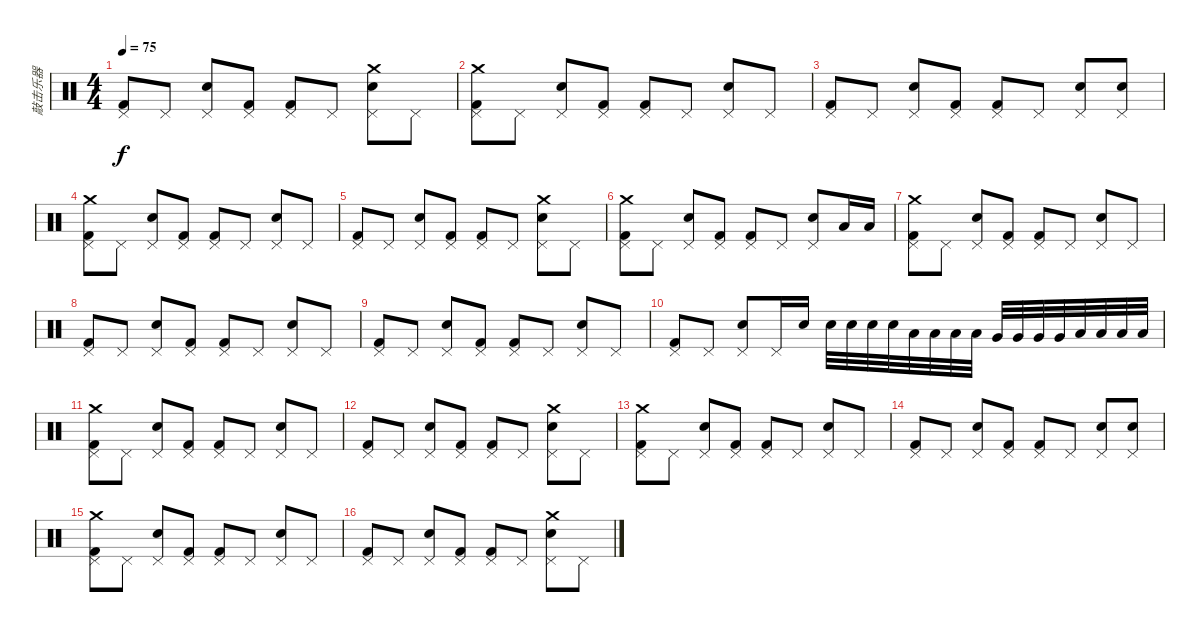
\track ("敲击乐器" "敲击乐器") {instrument percussion}
\staff {score}
\articulation defaults
\ts (4 4)
\tempo 75
\clef neutral
\ks c
("Pedal Hi-Hat (hit)" "Kick (hit) 2").8{dy f} "Pedal Hi-Hat (hit)".8 ("Pedal Hi-Hat (hit)" "Electric Snare (hit)").8 ("Pedal Hi-Hat (hit)" "Kick (hit) 2").8 ("Pedal Hi-Hat (hit)" "Kick (hit) 2").8 "Pedal Hi-Hat (hit)".8 ("Pedal Hi-Hat (hit)" "Electric Snare (hit)" "Crash medium (hit)").8 "Pedal Hi-Hat (hit)".8 |
("Pedal Hi-Hat (hit)" "Kick (hit) 2" "Crash medium (hit)").8 "Pedal Hi-Hat (hit)".8 ("Pedal Hi-Hat (hit)" "Electric Snare (hit)").8 ("Pedal Hi-Hat (hit)" "Kick (hit) 2").8 ("Pedal Hi-Hat (hit)" "Kick (hit) 2").8 "Pedal Hi-Hat (hit)".8 ("Pedal Hi-Hat (hit)" "Electric Snare (hit)").8 "Pedal Hi-Hat (hit)".8 |
("Pedal Hi-Hat (hit)" "Kick (hit) 2").8 "Pedal Hi-Hat (hit)".8 ("Pedal Hi-Hat (hit)" "Electric Snare (hit)").8 ("Pedal Hi-Hat (hit)" "Kick (hit) 2").8 ("Pedal Hi-Hat (hit)" "Kick (hit) 2").8 "Pedal Hi-Hat (hit)".8 ("Pedal Hi-Hat (hit)" "Electric Snare (hit)").8 ("Pedal Hi-Hat (hit)" "Electric Snare (hit)").8 |
("Pedal Hi-Hat (hit)" "Kick (hit) 2" "Crash medium (hit)").8 "Pedal Hi-Hat (hit)".8 ("Pedal Hi-Hat (hit)" "Electric Snare (hit)").8 ("Pedal Hi-Hat (hit)" "Kick (hit) 2").8 ("Pedal Hi-Hat (hit)" "Kick (hit) 2").8 "Pedal Hi-Hat (hit)".8 ("Pedal Hi-Hat (hit)" "Electric Snare (hit)").8 "Pedal Hi-Hat (hit)".8 |
("Pedal Hi-Hat (hit)" "Kick (hit) 2").8 "Pedal Hi-Hat (hit)".8 ("Pedal Hi-Hat (hit)" "Electric Snare (hit)").8 ("Pedal Hi-Hat (hit)" "Kick (hit) 2").8 ("Pedal Hi-Hat (hit)" "Kick (hit) 2").8 "Pedal Hi-Hat (hit)".8 ("Pedal Hi-Hat (hit)" "Electric Snare (hit)" "Crash medium (hit)").8 "Pedal Hi-Hat (hit)".8 |
("Pedal Hi-Hat (hit)" "Kick (hit) 2" "Crash medium (hit)").8 "Pedal Hi-Hat (hit)".8 ("Pedal Hi-Hat (hit)" "Electric Snare (hit)").8 ("Pedal Hi-Hat (hit)" "Kick (hit) 2").8 ("Pedal Hi-Hat (hit)" "Kick (hit) 2").8 "Pedal Hi-Hat (hit)".8 ("Pedal Hi-Hat (hit)" "Electric Snare (hit)").8 "Low Tom (hit)".16 "Low Tom (hit)".16 |
("Pedal Hi-Hat (hit)" "Kick (hit) 2" "Crash medium (hit)").8 "Pedal Hi-Hat (hit)".8 ("Pedal Hi-Hat (hit)" "Electric Snare (hit)").8 ("Pedal Hi-Hat (hit)" "Kick (hit) 2").8 ("Pedal Hi-Hat (hit)" "Kick (hit) 2").8 "Pedal Hi-Hat (hit)".8 ("Pedal Hi-Hat (hit)" "Electric Snare (hit)").8 "Pedal Hi-Hat (hit)".8 |
("Pedal Hi-Hat (hit)" "Kick (hit) 2").8 "Pedal Hi-Hat (hit)".8 ("Pedal Hi-Hat (hit)" "Electric Snare (hit)").8 ("Pedal Hi-Hat (hit)" "Kick (hit) 2").8 ("Pedal Hi-Hat (hit)" "Kick (hit) 2").8 "Pedal Hi-Hat (hit)".8 ("Pedal Hi-Hat (hit)" "Electric Snare (hit)").8 "Pedal Hi-Hat (hit)".8 |
("Pedal Hi-Hat (hit)" "Kick (hit) 2").8 "Pedal Hi-Hat (hit)".8 ("Pedal Hi-Hat (hit)" "Electric Snare (hit)").8 ("Pedal Hi-Hat (hit)" "Kick (hit) 2").8 ("Pedal Hi-Hat (hit)" "Kick (hit) 2").8 "Pedal Hi-Hat (hit)".8 ("Pedal Hi-Hat (hit)" "Electric Snare (hit)").8 "Pedal Hi-Hat (hit)".8 |
("Pedal Hi-Hat (hit)" "Kick (hit) 2").8 "Pedal Hi-Hat (hit)".8 ("Pedal Hi-Hat (hit)" "Electric Snare (hit)").8 "Pedal Hi-Hat (hit)".16 "Electric Snare (hit)".16 "Electric Snare (hit)".32 "Electric Snare (hit)".32 "Electric Snare (hit)".32 "Electric Snare (hit)".32 "Low Floor Tom (hit)".32 "Low Floor Tom (hit)".32 "Low Floor Tom (hit)".32 "Low Floor Tom (hit)".32 "Very Low Tom (hit)".32 "Very Low Tom (hit)".32 "Very Low Tom (hit)".32 "Very Low Tom (hit)".32 "Low Tom (hit)".32 "Low Tom (hit)".32 "Low Tom (hit)".32 "Low Tom (hit)".32 |
("Pedal Hi-Hat (hit)" "Kick (hit) 2" "Crash medium (hit)").8 "Pedal Hi-Hat (hit)".8 ("Pedal Hi-Hat (hit)" "Electric Snare (hit)").8 ("Pedal Hi-Hat (hit)" "Kick (hit) 2").8 ("Pedal Hi-Hat (hit)" "Kick (hit) 2").8 "Pedal Hi-Hat (hit)".8 ("Pedal Hi-Hat (hit)" "Electric Snare (hit)").8 "Pedal Hi-Hat (hit)".8 |
("Pedal Hi-Hat (hit)" "Kick (hit) 2").8 "Pedal Hi-Hat (hit)".8 ("Pedal Hi-Hat (hit)" "Electric Snare (hit)").8 ("Pedal Hi-Hat (hit)" "Kick (hit) 2").8 ("Pedal Hi-Hat (hit)" "Kick (hit) 2").8 "Pedal Hi-Hat (hit)".8 ("Pedal Hi-Hat (hit)" "Electric Snare (hit)" "Crash medium (hit)").8 "Pedal Hi-Hat (hit)".8 |
("Pedal Hi-Hat (hit)" "Kick (hit) 2" "Crash medium (hit)").8 "Pedal Hi-Hat (hit)".8 ("Pedal Hi-Hat (hit)" "Electric Snare (hit)").8 ("Pedal Hi-Hat (hit)" "Kick (hit) 2").8 ("Pedal Hi-Hat (hit)" "Kick (hit) 2").8 "Pedal Hi-Hat (hit)".8 ("Pedal Hi-Hat (hit)" "Electric Snare (hit)").8 "Pedal Hi-Hat (hit)".8 |
("Pedal Hi-Hat (hit)" "Kick (hit) 2").8 "Pedal Hi-Hat (hit)".8 ("Pedal Hi-Hat (hit)" "Electric Snare (hit)").8 ("Pedal Hi-Hat (hit)" "Kick (hit) 2").8 ("Pedal Hi-Hat (hit)" "Kick (hit) 2").8 "Pedal Hi-Hat (hit)".8 ("Pedal Hi-Hat (hit)" "Electric Snare (hit)").8 ("Pedal Hi-Hat (hit)" "Electric Snare (hit)").8 |
("Pedal Hi-Hat (hit)" "Kick (hit) 2" "Crash medium (hit)").8 "Pedal Hi-Hat (hit)".8 ("Pedal Hi-Hat (hit)" "Electric Snare (hit)").8 ("Pedal Hi-Hat (hit)" "Kick (hit) 2").8 ("Pedal Hi-Hat (hit)" "Kick (hit) 2").8 "Pedal Hi-Hat (hit)".8 ("Pedal Hi-Hat (hit)" "Electric Snare (hit)").8 "Pedal Hi-Hat (hit)".8 |
("Pedal Hi-Hat (hit)" "Kick (hit) 2").8 "Pedal Hi-Hat (hit)".8 ("Pedal Hi-Hat (hit)" "Electric Snare (hit)").8 ("Pedal Hi-Hat (hit)" "Kick (hit) 2").8 ("Pedal Hi-Hat (hit)" "Kick (hit) 2").8 "Pedal Hi-Hat (hit)".8 ("Pedal Hi-Hat (hit)" "Electric Snare (hit)" "Crash medium (hit)").8 "Pedal Hi-Hat (hit)".8
